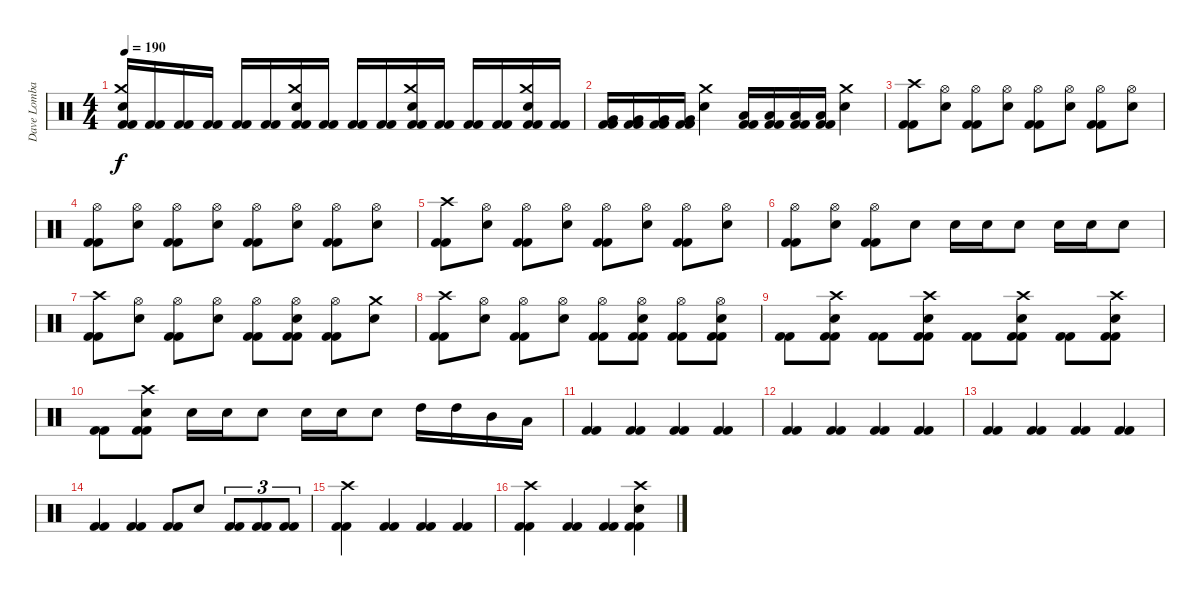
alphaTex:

\track ("Dave Lombardo" "Dave Lomba") {instrument percussion}
\staff {score}
\articulation defaults
\ts (4 4)
\tempo 190
\clef neutral
\ks c
("Kick (hit) 2" "Crash medium (hit)" "Electric Snare (hit)" "Kick (hit) 2").16{dy f} ("Kick (hit) 2" "Kick (hit) 2").16 ("Kick (hit) 2" "Kick (hit) 2").16 ("Kick (hit) 2" "Kick (hit) 2").16 ("Kick (hit) 2" "Kick (hit) 2").16 ("Kick (hit) 2" "Kick (hit) 2").16 ("Kick (hit) 2" "Crash medium (hit)" "Electric Snare (hit)" "Kick (hit) 2").16 ("Kick (hit) 2" "Kick (hit) 2").16 ("Kick (hit) 2" "Kick (hit) 2").16 ("Kick (hit) 2" "Kick (hit) 2").16 ("Kick (hit) 2" "Crash medium (hit)" "Electric Snare (hit)" "Kick (hit) 2").16 ("Kick (hit) 2" "Kick (hit) 2").16 ("Kick (hit) 2" "Kick (hit) 2").16 ("Kick (hit) 2" "Kick (hit) 2").16 ("Kick (hit) 2" "Crash medium (hit)" "Electric Snare (hit)" "Kick (hit) 2").16 ("Kick (hit) 2" "Kick (hit) 2").16 |
("Kick (hit) 2" "Very Low Tom (hit)" "Kick (hit) 2").16 ("Kick (hit) 2" "Very Low Tom (hit)" "Kick (hit) 2").16 ("Kick (hit) 2" "Very Low Tom (hit)" "Kick (hit) 2").16 ("Kick (hit) 2" "Very Low Tom (hit)" "Kick (hit) 2").16 ("Crash medium (hit)" "Electric Snare (hit)").4 ("Kick (hit) 2" "Low Floor Tom (hit)" "Kick (hit) 2").16 ("Kick (hit) 2" "Low Floor Tom (hit)" "Kick (hit) 2").16 ("Kick (hit) 2" "Low Floor Tom (hit)" "Kick (hit) 2").16 ("Kick (hit) 2" "Low Floor Tom (hit)" "Kick (hit) 2").16 ("Crash medium (hit)" "Electric Snare (hit)").4 |
("Kick (hit) 2" "Crash high (hit)" "Kick (hit) 2").8 ("Hi-Hat (open)" "Electric Snare (hit)").8 ("Kick (hit) 2" "Hi-Hat (open)" "Kick (hit) 2").8 ("Hi-Hat (open)" "Electric Snare (hit)").8 ("Kick (hit) 2" "Hi-Hat (open)" "Kick (hit) 2").8 ("Hi-Hat (open)" "Electric Snare (hit)").8 ("Kick (hit) 2" "Hi-Hat (open)" "Kick (hit) 2").8 ("Hi-Hat (open)" "Electric Snare (hit)").8 |
("Kick (hit) 2" "Hi-Hat (open)" "Kick (hit) 2").8 ("Hi-Hat (open)" "Electric Snare (hit)").8 ("Kick (hit) 2" "Hi-Hat (open)" "Kick (hit) 2").8 ("Hi-Hat (open)" "Electric Snare (hit)").8 ("Kick (hit) 2" "Hi-Hat (open)" "Kick (hit) 2").8 ("Hi-Hat (open)" "Electric Snare (hit)").8 ("Kick (hit) 2" "Hi-Hat (open)" "Kick (hit) 2").8 ("Hi-Hat (open)" "Electric Snare (hit)").8 |
("Kick (hit) 2" "Crash high (hit)" "Kick (hit) 2").8 ("Hi-Hat (open)" "Electric Snare (hit)").8 ("Kick (hit) 2" "Hi-Hat (open)" "Kick (hit) 2").8 ("Hi-Hat (open)" "Electric Snare (hit)").8 ("Kick (hit) 2" "Hi-Hat (open)" "Kick (hit) 2").8 ("Hi-Hat (open)" "Electric Snare (hit)").8 ("Kick (hit) 2" "Hi-Hat (open)" "Kick (hit) 2").8 ("Hi-Hat (open)" "Electric Snare (hit)").8 |
("Kick (hit) 2" "Hi-Hat (open)" "Kick (hit) 2").8 ("Hi-Hat (open)" "Electric Snare (hit)").8 ("Kick (hit) 2" "Hi-Hat (open)" "Kick (hit) 2").8 "Electric Snare (hit)".8 "Electric Snare (hit)".16 "Electric Snare (hit)".16 "Electric Snare (hit)".8 "Electric Snare (hit)".16 "Electric Snare (hit)".16 "Electric Snare (hit)".8 |
("Kick (hit) 2" "Crash high (hit)" "Kick (hit) 2").8 ("Hi-Hat (open)" "Electric Snare (hit)").8 ("Kick (hit) 2" "Hi-Hat (open)" "Kick (hit) 2").8 ("Hi-Hat (open)" "Electric Snare (hit)").8 ("Kick (hit) 2" "Hi-Hat (open)" "Kick (hit) 2").8 ("Kick (hit) 2" "Hi-Hat (open)" "Electric Snare (hit)" "Kick (hit) 2").8 ("Kick (hit) 2" "Hi-Hat (open)" "Kick (hit) 2").8 ("Crash medium (hit)" "Electric Snare (hit)").8 |
("Kick (hit) 2" "Crash high (hit)" "Kick (hit) 2").8 ("Hi-Hat (open)" "Electric Snare (hit)").8 ("Kick (hit) 2" "Hi-Hat (open)" "Kick (hit) 2").8 ("Hi-Hat (open)" "Electric Snare (hit)").8 ("Kick (hit) 2" "Hi-Hat (open)" "Kick (hit) 2").8 ("Kick (hit) 2" "Hi-Hat (open)" "Electric Snare (hit)" "Kick (hit) 2").8 ("Kick (hit) 2" "Hi-Hat (open)" "Kick (hit) 2").8 ("Kick (hit) 2" "Hi-Hat (open)" "Electric Snare (hit)" "Kick (hit) 2").8 |
("Kick (hit) 2" "Kick (hit) 2").8 ("Kick (hit) 2" "Crash high (hit)" "Electric Snare (hit)" "Kick (hit) 2").8 ("Kick (hit) 2" "Kick (hit) 2").8 ("Kick (hit) 2" "Crash high (hit)" "Electric Snare (hit)" "Kick (hit) 2").8 ("Kick (hit) 2" "Kick (hit) 2").8 ("Kick (hit) 2" "Crash high (hit)" "Electric Snare (hit)" "Kick (hit) 2").8 ("Kick (hit) 2" "Kick (hit) 2").8 ("Kick (hit) 2" "Crash high (hit)" "Electric Snare (hit)" "Kick (hit) 2").8 |
("Kick (hit) 2" "Kick (hit) 2").8 ("Kick (hit) 2" "Crash high (hit)" "Electric Snare (hit)" "Kick (hit) 2").8 "Electric Snare (hit)".16 "Electric Snare (hit)".16 "Electric Snare (hit)".8 "Electric Snare (hit)".16 "Electric Snare (hit)".16 "Electric Snare (hit)".8 "High Tom (hit)".16 "High Tom (hit)".16 "Mid Tom (hit)".16 "Low Tom (hit)".16 |
("Kick (hit) 2" "Kick (hit) 2").4 ("Kick (hit) 2" "Kick (hit) 2").4 ("Kick (hit) 2" "Kick (hit) 2").4 ("Kick (hit) 2" "Kick (hit) 2").4 |
("Kick (hit) 2" "Kick (hit) 2").4 ("Kick (hit) 2" "Kick (hit) 2").4 ("Kick (hit) 2" "Kick (hit) 2").4 ("Kick (hit) 2" "Kick (hit) 2").4 |
("Kick (hit) 2" "Kick (hit) 2").4 ("Kick (hit) 2" "Kick (hit) 2").4 ("Kick (hit) 2" "Kick (hit) 2").4 ("Kick (hit) 2" "Kick (hit) 2").4 |
("Kick (hit) 2" "Kick (hit) 2").4 ("Kick (hit) 2" "Kick (hit) 2").4 ("Kick (hit) 2" "Kick (hit) 2").8 "Electric Snare (hit)".8 ("Kick (hit) 2" "Kick (hit) 2").8{tu (3 2)} ("Kick (hit) 2" "Kick (hit) 2").8{tu (3 2)} ("Kick (hit) 2" "Kick (hit) 2").8{tu (3 2)} |
("Crash high (hit)" "Kick (hit) 2" "Kick (hit) 2").4 ("Kick (hit) 2" "Kick (hit) 2").4 ("Kick (hit) 2" "Kick (hit) 2").4 ("Kick (hit) 2" "Kick (hit) 2").4 |
("Crash high (hit)" "Kick (hit) 2" "Kick (hit) 2").4 ("Kick (hit) 2" "Kick (hit) 2").4 ("Kick (hit) 2" "Kick (hit) 2").4 ("Crash high (hit)" "Electric Snare (hit)" "Kick (hit) 2" "Kick (hit) 2").4
